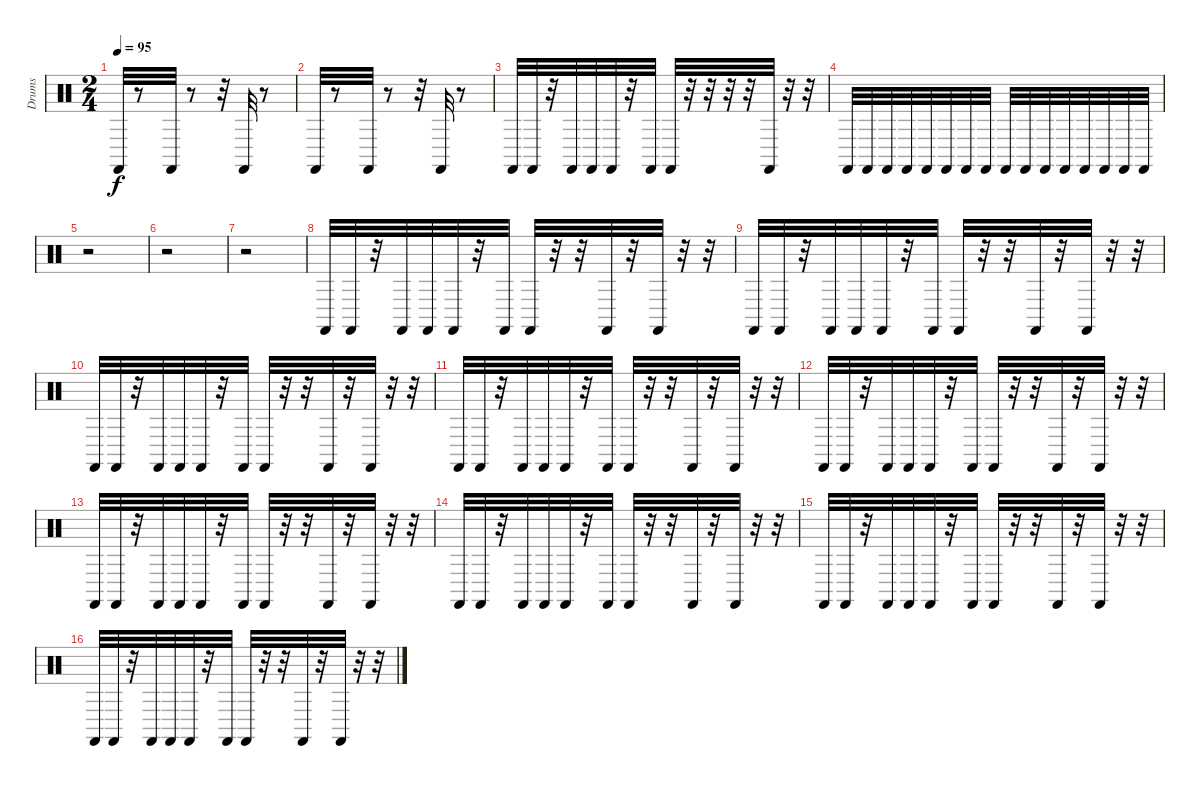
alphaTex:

\track ("Drums" "Drums") {instrument percussion}
\staff {score}
\articulation defaults
\ts (2 4)
\tempo 95
\clef neutral
\ks c "Castanets (hit)".32{dy f}
r.8 "Castanets (hit)".32 r.8 r.32 "Castanets (hit)".32 r.8 |
"Castanets (hit)".32 r.8 "Castanets (hit)".32 r.8 r.32 "Castanets (hit)".32 r.8 |
"Castanets (hit)".32 "Castanets (hit)".32 r.32 "Castanets (hit)".32 "Castanets (hit)".32 "Castanets (hit)".32 r.32 "Castanets (hit)".32 "Castanets (hit)".32 r.32 r.32 r.32 r.32 "Castanets (hit)".32 r.32 r.32 |
"Castanets (hit)".32 "Castanets (hit)".32 "Castanets (hit)".32 "Castanets (hit)".32 "Castanets (hit)".32 "Castanets (hit)".32 "Castanets (hit)".32 "Castanets (hit)".32 "Castanets (hit)".32 "Castanets (hit)".32 "Castanets (hit)".32 "Castanets (hit)".32 "Castanets (hit)".32 "Castanets (hit)".32 "Castanets (hit)".32 "Castanets (hit)".32 |
r.2 |
r.2 |
r.2 |
"Castanets (hit)".32 "Castanets (hit)".32 r.32 "Castanets (hit)".32 "Castanets (hit)".32 "Castanets (hit)".32 r.32 "Castanets (hit)".32 "Castanets (hit)".32 r.32 r.32 "Castanets (hit)".32 r.32 "Castanets (hit)".32 r.32 r.32 |
"Castanets (hit)".32 "Castanets (hit)".32 r.32 "Castanets (hit)".32 "Castanets (hit)".32 "Castanets (hit)".32 r.32 "Castanets (hit)".32 "Castanets (hit)".32 r.32 r.32 "Castanets (hit)".32 r.32 "Castanets (hit)".32 r.32 r.32 |
"Castanets (hit)".32 "Castanets (hit)".32 r.32 "Castanets (hit)".32 "Castanets (hit)".32 "Castanets (hit)".32 r.32 "Castanets (hit)".32 "Castanets (hit)".32 r.32 r.32 "Castanets (hit)".32 r.32 "Castanets (hit)".32 r.32 r.32 |
"Castanets (hit)".32 "Castanets (hit)".32 r.32 "Castanets (hit)".32 "Castanets (hit)".32 "Castanets (hit)".32 r.32 "Castanets (hit)".32 "Castanets (hit)".32 r.32 r.32 "Castanets (hit)".32 r.32 "Castanets (hit)".32 r.32 r.32 |
"Castanets (hit)".32 "Castanets (hit)".32 r.32 "Castanets (hit)".32 "Castanets (hit)".32 "Castanets (hit)".32 r.32 "Castanets (hit)".32 "Castanets (hit)".32 r.32 r.32 "Castanets (hit)".32 r.32 "Castanets (hit)".32 r.32 r.32 |
"Castanets (hit)".32 "Castanets (hit)".32 r.32 "Castanets (hit)".32 "Castanets (hit)".32 "Castanets (hit)".32 r.32 "Castanets (hit)".32 "Castanets (hit)".32 r.32 r.32 "Castanets (hit)".32 r.32 "Castanets (hit)".32 r.32 r.32 |
"Castanets (hit)".32 "Castanets (hit)".32 r.32 "Castanets (hit)".32 "Castanets (hit)".32 "Castanets (hit)".32 r.32 "Castanets (hit)".32 "Castanets (hit)".32 r.32 r.32 "Castanets (hit)".32 r.32 "Castanets (hit)".32 r.32 r.32 |
"Castanets (hit)".32 "Castanets (hit)".32 r.32 "Castanets (hit)".32 "Castanets (hit)".32 "Castanets (hit)".32 r.32 "Castanets (hit)".32 "Castanets (hit)".32 r.32 r.32 "Castanets (hit)".32 r.32 "Castanets (hit)".32 r.32 r.32 |
"Castanets (hit)".32 "Castanets (hit)".32 r.32 "Castanets (hit)".32 "Castanets (hit)".32 "Castanets (hit)".32 r.32 "Castanets (hit)".32 "Castanets (hit)".32 r.32 r.32 "Castanets (hit)".32 r.32 "Castanets (hit)".32 r.32 r.32
